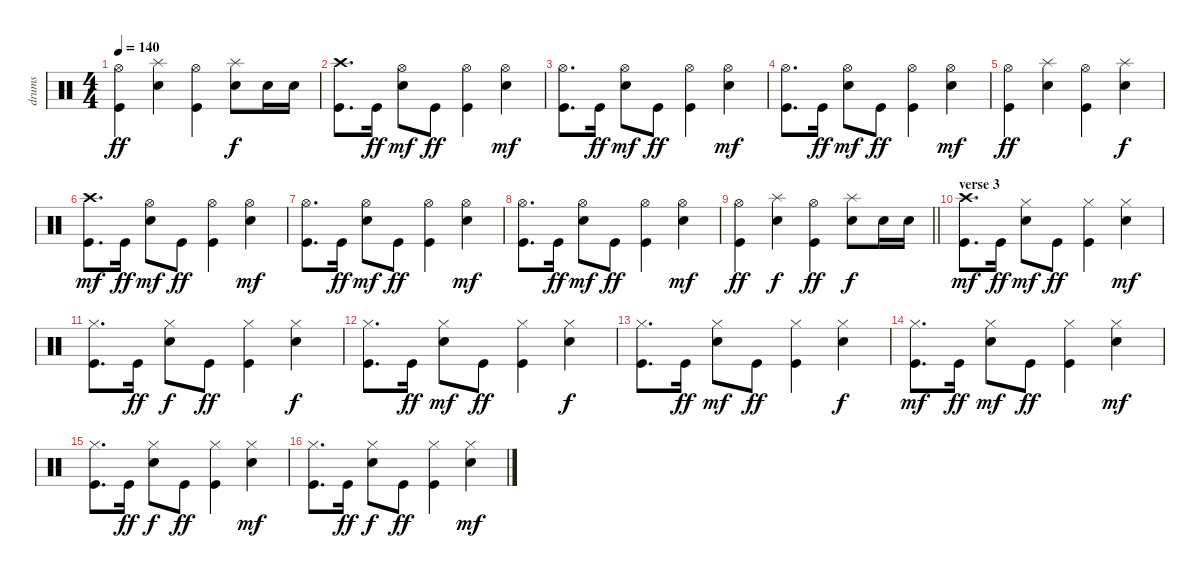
\track ("drums" "drums") {instrument percussion}
\staff {score}
\articulation defaults
\ts (4 4)
\tempo 140
\clef neutral
\ks c
("Hi-Hat (open)" "Kick (hit)").4{dy ff} ("Splash (hit)" "Electric Snare (hit)").4 ("Hi-Hat (open)" "Kick (hit)").4 ("Splash (hit)" "Electric Snare (hit)").8{dy f} "Electric Snare (hit)".16 "Electric Snare (hit)".16 |
("Crash high (hit)" "Kick (hit)").8{d} "Kick (hit)".16{dy ff} ("Hi-Hat (open)" "Electric Snare (hit)").8{dy mf} "Kick (hit)".8{dy ff} ("Hi-Hat (open)" "Kick (hit)").4 ("Hi-Hat (open)" "Electric Snare (hit)").4{dy mf} |
("Hi-Hat (open)" "Kick (hit)").8{d} "Kick (hit)".16{dy ff} ("Hi-Hat (open)" "Electric Snare (hit)").8{dy mf} "Kick (hit)".8{dy ff} ("Hi-Hat (open)" "Kick (hit)").4 ("Hi-Hat (open)" "Electric Snare (hit)").4{dy mf} |
("Hi-Hat (open)" "Kick (hit)").8{d} "Kick (hit)".16{dy ff} ("Hi-Hat (open)" "Electric Snare (hit)").8{dy mf} "Kick (hit)".8{dy ff} ("Hi-Hat (open)" "Kick (hit)").4 ("Hi-Hat (open)" "Electric Snare (hit)").4{dy mf} |
("Hi-Hat (open)" "Kick (hit)").4{dy ff} ("Splash (hit)" "Electric Snare (hit)").4 ("Hi-Hat (open)" "Kick (hit)").4 ("Splash (hit)" "Electric Snare (hit)").4{dy f} |
("Crash high (hit)" "Kick (hit)").8{d dy mf} "Kick (hit)".16{dy ff} ("Hi-Hat (open)" "Electric Snare (hit)").8{dy mf} "Kick (hit)".8{dy ff} ("Hi-Hat (open)" "Kick (hit)").4 ("Hi-Hat (open)" "Electric Snare (hit)").4{dy mf} |
("Hi-Hat (open)" "Kick (hit)").8{d} "Kick (hit)".16{dy ff} ("Hi-Hat (open)" "Electric Snare (hit)").8{dy mf} "Kick (hit)".8{dy ff} ("Hi-Hat (open)" "Kick (hit)").4 ("Hi-Hat (open)" "Electric Snare (hit)").4{dy mf} |
("Hi-Hat (open)" "Kick (hit)").8{d} "Kick (hit)".16{dy ff} ("Hi-Hat (open)" "Electric Snare (hit)").8{dy mf} "Kick (hit)".8{dy ff} ("Hi-Hat (open)" "Kick (hit)").4 ("Hi-Hat (open)" "Electric Snare (hit)").4{dy mf} |
\barLineRight lightlight
("Hi-Hat (open)" "Kick (hit)").4{dy ff} ("Splash (hit)" "Electric Snare (hit)").4{dy f} ("Hi-Hat (open)" "Kick (hit)").4{dy ff} ("Splash (hit)" "Electric Snare (hit)").8{dy f} "Electric Snare (hit)".16 "Electric Snare (hit)".16 |
\section ("" "verse 3")
("Crash high (hit)" "Kick (hit)").8{d dy mf} "Kick (hit)".16{dy ff} ("Hi-Hat (closed)" "Electric Snare (hit)").8{dy mf} "Kick (hit)".8{dy ff} ("Hi-Hat (closed)" "Kick (hit)").4 ("Hi-Hat (closed)" "Electric Snare (hit)").4{dy mf} |
("Hi-Hat (closed)" "Kick (hit)").8{d} "Kick (hit)".16{dy ff} ("Hi-Hat (closed)" "Electric Snare (hit)").8{dy f} "Kick (hit)".8{dy ff} ("Hi-Hat (closed)" "Kick (hit)").4 ("Hi-Hat (closed)" "Electric Snare (hit)").4{dy f} |
("Hi-Hat (closed)" "Kick (hit)").8{d} "Kick (hit)".16{dy ff} ("Hi-Hat (closed)" "Electric Snare (hit)").8{dy mf} "Kick (hit)".8{dy ff} ("Hi-Hat (closed)" "Kick (hit)").4 ("Hi-Hat (closed)" "Electric Snare (hit)").4{dy f} |
("Hi-Hat (closed)" "Kick (hit)").8{d} "Kick (hit)".16{dy ff} ("Hi-Hat (closed)" "Electric Snare (hit)").8{dy mf} "Kick (hit)".8{dy ff} ("Hi-Hat (closed)" "Kick (hit)").4 ("Hi-Hat (closed)" "Electric Snare (hit)").4{dy f} |
("Hi-Hat (closed)" "Kick (hit)").8{d dy mf} "Kick (hit)".16{dy ff} ("Hi-Hat (closed)" "Electric Snare (hit)").8{dy mf} "Kick (hit)".8{dy ff} ("Hi-Hat (closed)" "Kick (hit)").4 ("Hi-Hat (closed)" "Electric Snare (hit)").4{dy mf} |
("Hi-Hat (closed)" "Kick (hit)").8{d} "Kick (hit)".16{dy ff} ("Hi-Hat (closed)" "Electric Snare (hit)").8{dy f} "Kick (hit)".8{dy ff} ("Hi-Hat (closed)" "Kick (hit)").4 ("Hi-Hat (closed)" "Electric Snare (hit)").4{dy mf} |
("Hi-Hat (closed)" "Kick (hit)").8{d} "Kick (hit)".16{dy ff} ("Hi-Hat (closed)" "Electric Snare (hit)").8{dy f} "Kick (hit)".8{dy ff} ("Hi-Hat (closed)" "Kick (hit)").4 ("Hi-Hat (closed)" "Electric Snare (hit)").4{dy mf}
